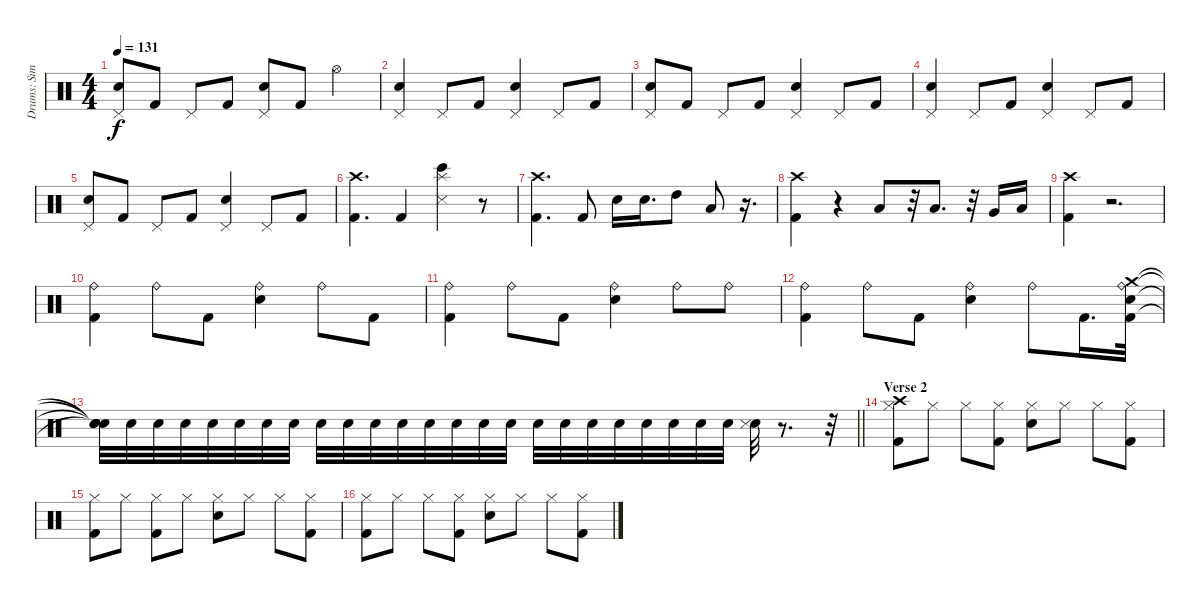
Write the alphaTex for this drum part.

\track ("Drums: Simon Kirke" "Drums: Sim") {instrument percussion}
\staff {score}
\articulation defaults
\ts (4 4)
\tempo 131
\clef neutral
\ks c
("Pedal Hi-Hat (hit)" "Electric Snare (hit)").8{dy f} "Kick (hit) 2".8 "Pedal Hi-Hat (hit)".8 "Kick (hit) 2".8 ("Pedal Hi-Hat (hit)" "Electric Snare (hit)").8 "Kick (hit) 2".8 "Hi-Hat (open)".4 |
("Electric Snare (hit)" "Pedal Hi-Hat (hit)").4 "Pedal Hi-Hat (hit)".8 "Kick (hit) 2".8 ("Electric Snare (hit)" "Pedal Hi-Hat (hit)").4 "Pedal Hi-Hat (hit)".8 "Kick (hit) 2".8 |
("Electric Snare (hit)" "Pedal Hi-Hat (hit)").8 "Kick (hit) 2".8 "Pedal Hi-Hat (hit)".8 "Kick (hit) 2".8 ("Electric Snare (hit)" "Pedal Hi-Hat (hit)").4 "Pedal Hi-Hat (hit)".8 "Kick (hit) 2".8 |
("Electric Snare (hit)" "Pedal Hi-Hat (hit)").4 "Pedal Hi-Hat (hit)".8 "Kick (hit) 2".8 ("Electric Snare (hit)" "Pedal Hi-Hat (hit)").4 "Pedal Hi-Hat (hit)".8 "Kick (hit) 2".8 |
("Electric Snare (hit)" "Pedal Hi-Hat (hit)").8 "Kick (hit) 2".8 "Pedal Hi-Hat (hit)".8 "Kick (hit) 2".8 ("Electric Snare (hit)" "Pedal Hi-Hat (hit)").4 "Pedal Hi-Hat (hit)".8 "Kick (hit) 2".8 |
("Crash high (hit)" "Kick (hit) 2").4{d} "Kick (hit) 2".4 ("Snare (side stick) 3" "Bongo High (hit)" "Splash (hit)").4 r.8 |
("Crash high (hit)" "Kick (hit) 2").4{d} "Kick (hit) 2".8 "Electric Snare (hit)".16 "Electric Snare (hit)".16{d} "High Tom (hit)".8 "Low Tom (hit)".8 r.16{d} |
("Crash high (hit)" "Kick (hit) 2").4 r.4 "Low Tom (hit)".8 r.32 "Low Tom (hit)".8{d} r.32 "Very Low Tom (hit)".16 "Low Floor Tom (hit)".16 |
("Crash high (hit)" "Kick (hit) 2").4 r.2{d} |
("Ride (bell)" "Kick (hit) 2").4 "Ride (bell)".8 "Kick (hit) 2".8 ("Ride (bell)" "Electric Snare (hit)").4 "Ride (bell)".8 "Kick (hit) 2".8 |
("Ride (bell)" "Kick (hit) 2").4 "Ride (bell)".8 "Kick (hit) 2".8 ("Electric Snare (hit)" "Ride (bell)").4 "Ride (bell)".8 "Ride (bell)".8 |
("Ride (bell)" "Kick (hit) 2").4 "Ride (bell)".8 "Kick (hit) 2".8 ("Ride (bell)" "Electric Snare (hit)").4 "Ride (bell)".8 "Kick (hit) 2".16{d} ("Crash medium (hit)" "Ride (bell)" "Kick (hit) 2" "Electric Snare (hit)").32 |
\barLineRight lightlight
("Snare (hit)"{t} "Snare (hit)"{t} "Snare (hit)"{t} "Snare (hit)"{t}).32 "Electric Snare (hit)".32 "Electric Snare (hit)".32 "Electric Snare (hit)".32 "Electric Snare (hit)".32 "Electric Snare (hit)".32 "Electric Snare (hit)".32 "Electric Snare (hit)".32 "Electric Snare (hit)".32 "Electric Snare (hit)".32 "Electric Snare (hit)".32 "Electric Snare (hit)".32 "Electric Snare (hit)".32 "Electric Snare (hit)".32 "Electric Snare (hit)".32 "Electric Snare (hit)".32 "Electric Snare (hit)".32 "Electric Snare (hit)".32 "Electric Snare (hit)".32 "Electric Snare (hit)".32 "Electric Snare (hit)".32 "Electric Snare (hit)".32 "Electric Snare (hit)".32 "Electric Snare (hit)".32 ("Electric Snare (hit)" "Snare (side stick) 3").32 r.8{d} r.32 |
\section ("" "Verse 2")
("Crash high (hit)" "Hi-Hat (closed)" "Kick (hit) 2").8 "Hi-Hat (closed)".8 "Hi-Hat (closed)".8 ("Hi-Hat (closed)" "Kick (hit) 2").8 ("Hi-Hat (closed)" "Electric Snare (hit)").8 "Hi-Hat (closed)".8 "Hi-Hat (closed)".8 ("Hi-Hat (closed)" "Kick (hit) 2").8 |
("Hi-Hat (closed)" "Kick (hit) 2").8 "Hi-Hat (closed)".8 ("Hi-Hat (closed)" "Kick (hit) 2").8 "Hi-Hat (closed)".8 ("Hi-Hat (closed)" "Electric Snare (hit)").8 "Hi-Hat (closed)".8 "Hi-Hat (closed)".8 ("Hi-Hat (closed)" "Kick (hit) 2").8 |
("Hi-Hat (closed)" "Kick (hit) 2").8 "Hi-Hat (closed)".8 "Hi-Hat (closed)".8 ("Hi-Hat (closed)" "Kick (hit) 2").8 ("Hi-Hat (closed)" "Electric Snare (hit)").8 "Hi-Hat (closed)".8 "Hi-Hat (closed)".8 ("Hi-Hat (closed)" "Kick (hit) 2").8
